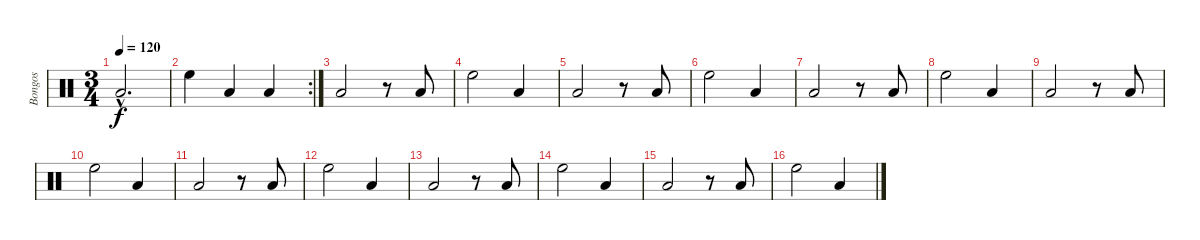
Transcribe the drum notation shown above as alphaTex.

\track ("Bongos" "Bongos") {instrument percussion}
\staff {score}
\articulation defaults
\ts (3 4)
\tempo 120
\clef neutral
\ks c "Low Floor Tom (hit)"{hac}.2{d dy f}
|
\rc 2 "High Floor Tom (hit)".4 "Low Floor Tom (hit)".4 "Low Floor Tom (hit)".4
|
"Low Floor Tom (hit)".2 r.8 "Low Floor Tom (hit)".8 |
"High Floor Tom (hit)".2 "Low Floor Tom (hit)".4 |
"Low Floor Tom (hit)".2 r.8 "Low Floor Tom (hit)".8 |
"High Floor Tom (hit)".2 "Low Floor Tom (hit)".4 |
"Low Floor Tom (hit)".2 r.8 "Low Floor Tom (hit)".8 |
"High Floor Tom (hit)".2 "Low Floor Tom (hit)".4 |
"Low Floor Tom (hit)".2 r.8 "Low Floor Tom (hit)".8 |
"High Floor Tom (hit)".2 "Low Floor Tom (hit)".4 |
"Low Floor Tom (hit)".2 r.8 "Low Floor Tom (hit)".8 |
"High Floor Tom (hit)".2 "Low Floor Tom (hit)".4 |
"Low Floor Tom (hit)".2 r.8 "Low Floor Tom (hit)".8 |
"High Floor Tom (hit)".2 "Low Floor Tom (hit)".4 |
"Low Floor Tom (hit)".2 r.8 "Low Floor Tom (hit)".8 |
"High Floor Tom (hit)".2 "Low Floor Tom (hit)".4
